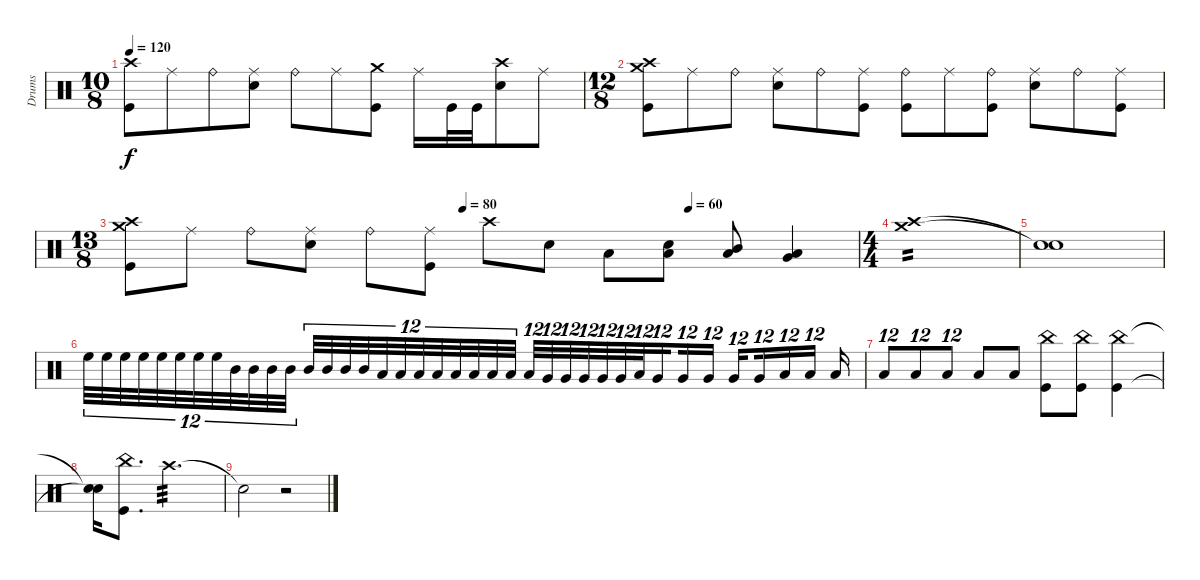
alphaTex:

\track ("Drums" "Drums") {instrument percussion}
\staff {score}
\articulation defaults
\ts (10 8)
\tempo 120
\clef neutral
\ks c
("Crash high (hit)" "Kick (hit)").8{dy f} "Ride (middle)".8 "Ride (bell)".8 ("Ride (middle)" "Snare (hit) 2").8 "Ride (bell)".8 "Ride (middle)".8 ("Crash medium (hit)" "Kick (hit)").8 "Ride (middle)".16 "Kick (hit)".32 "Kick (hit)".32 ("Crash high (hit)" "Snare (hit) 2").8 "Ride (middle)".8 |
\ts (12 8)
("Crash high (hit)" "Crash medium (hit)" "Kick (hit)").8 "Ride (middle)".8 "Ride (bell)".8 ("Ride (middle)" "Snare (hit) 2").8 "Ride (bell)".8 ("Ride (middle)" "Kick (hit)").8 ("Ride (bell)" "Kick (hit)").8 "Ride (middle)".8 ("Ride (bell)" "Kick (hit)").8 ("Ride (middle)" "Snare (hit) 2").8 "Ride (bell)".8 ("Ride (middle)" "Kick (hit)").8 |
\ts (13 8)
\tempo (80 0.46153846153846156)
\tempo (60 0.7692307692307693)
("Crash high (hit)" "Crash medium (hit)" "Kick (hit)").8 "Ride (middle)".8 "Ride (bell)".8 ("Ride (middle)" "Snare (hit) 2").8 "Ride (bell)".8 ("Ride (middle)" "Kick (hit)").8 "Crash high (hit)".8 "Snare (hit) 2".8 "Low Tom (hit)".8 ("Low Tom (hit)" "Snare (hit) 2").8 ("Mid Tom (hit)" "Low Tom (hit)").8 ("Very Low Tom (hit)" "Low Tom (hit)").4 |
\ts (4 4)
("Crash high (hit)" "Crash medium (hit)").1{tp 2} |
("Snare (hit)"{t} "Snare (hit)"{t}).1 |
"High Floor Tom (hit)".32{tu (12 8)} "High Floor Tom (hit)".32{tu (12 8)} "High Floor Tom (hit)".32{tu (12 8) beam splitsecondary} "High Floor Tom (hit)".32{tu (12 8)} "High Floor Tom (hit)".32{tu (12 8)} "High Floor Tom (hit)".32{tu (12 8) beam splitsecondary} "High Floor Tom (hit)".32{tu (12 8)} "High Floor Tom (hit)".32{tu (12 8)} "Mid Tom (hit)".32{tu (12 8) beam splitsecondary} "Mid Tom (hit)".32{tu (12 8)} "Mid Tom (hit)".32{tu (12 8)} "Mid Tom (hit)".32{tu (12 8)} "Mid Tom (hit)".32{tu (12 8)} "Mid Tom (hit)".32{tu (12 8)} "Mid Tom (hit)".32{tu (12 8) beam splitsecondary} "Mid Tom (hit)".32{tu (12 8)} "Low Tom (hit)".32{tu (12 8)} "Low Tom (hit)".32{tu (12 8) beam splitsecondary} "Low Tom (hit)".32{tu (12 8)} "Low Tom (hit)".32{tu (12 8)} "Low Tom (hit)".32{tu (12 8) beam splitsecondary} "Low Tom (hit)".32{tu (12 8)} "Low Tom (hit)".32{tu (12 8)} "Low Tom (hit)".32{tu (12 8)} "Low Tom (hit)".32{tu (12 8)} "Very Low Tom (hit)".32{tu (12 8)} "Very Low Tom (hit)".32{tu (12 8) beam splitsecondary} "Very Low Tom (hit)".32{tu (12 8)} "Very Low Tom (hit)".32{tu (12 8)} "Very Low Tom (hit)".32{tu (12 8) beam splitsecondary} "Low Tom (hit)".32{tu (12 8)} "Very Low Tom (hit)".16{tu (12 8) beam splitsecondary} "Very Low Tom (hit)".16{tu (12 8)} "Very Low Tom (hit)".16{tu (12 8)} "Very Low Tom (hit)".16{tu (12 8) beam splitsecondary} "Very Low Tom (hit)".16{tu (12 8)} "Low Floor Tom (hit)".16{tu (12 8)} "Low Floor Tom (hit)".16{tu (12 8) beam splitsecondary} "Low Floor Tom (hit)".16 |
"Low Floor Tom (hit)".8{tu (12 8)} "Low Floor Tom (hit)".8{tu (12 8)} "Low Floor Tom (hit)".8{tu (12 8)} "Low Floor Tom (hit)".8 "Low Floor Tom (hit)".8 ("China (hit)" "Kick (hit)").8 ("China (hit)" "Kick (hit)").8 ("China (hit)" "Kick (hit)").4 |
("Snare (hit)"{t} "Snare (hit)"{t}).16 ("China (hit)" "Kick (hit)").8{d} "Crash high (hit)".2{d tp 3} |
"Snare (hit)"{t}.2 r.2
